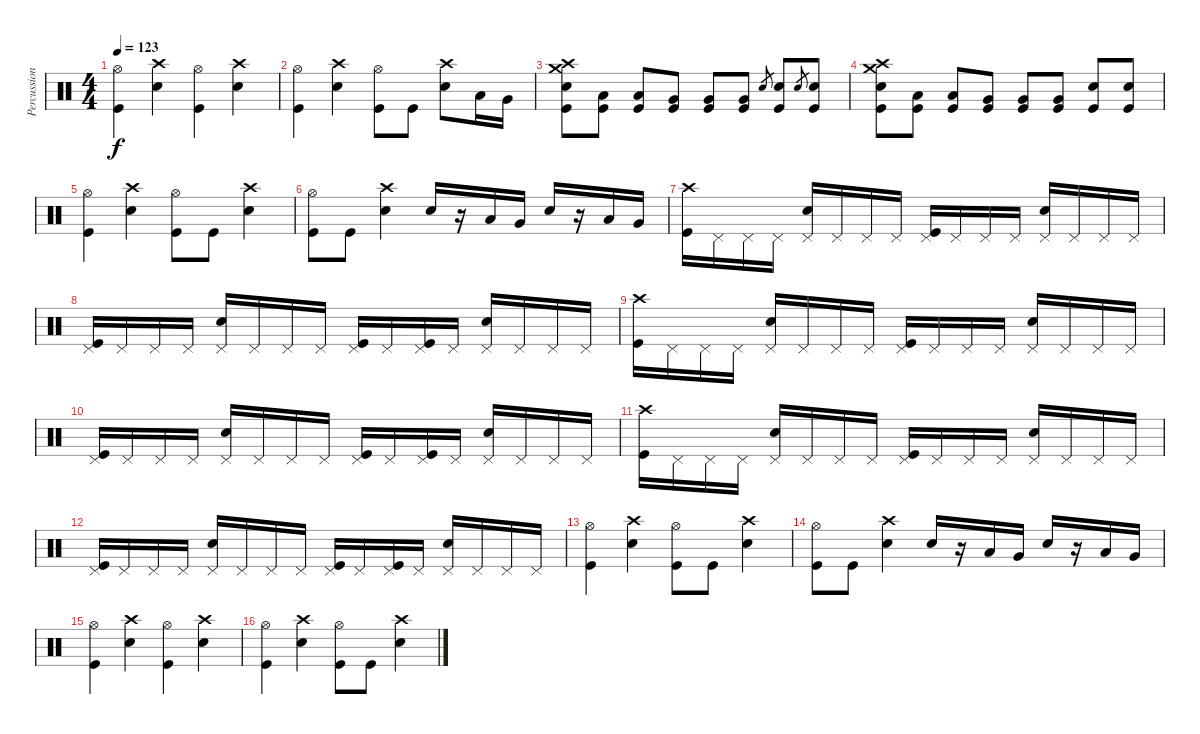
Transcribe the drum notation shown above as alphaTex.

\track ("Percussion" "Percussion") {instrument percussion}
\staff {score}
\articulation defaults
\ts (4 4)
\tempo 123
\clef neutral
\ks c
("Hi-Hat (open)" "Kick (hit)").4{dy f} ("Crash high (hit)" "Snare (hit) 2").4 ("Hi-Hat (open)" "Kick (hit)").4 ("Crash high (hit)" "Snare (hit) 2").4 |
("Hi-Hat (open)" "Kick (hit)").4 ("Crash high (hit)" "Snare (hit) 2").4 ("Hi-Hat (open)" "Kick (hit)").8 "Kick (hit)".8 ("Crash high (hit)" "Snare (hit) 2").8 "Low Tom (hit)".16 "Very Low Tom (hit)".16 |
("Crash high (hit)" "Crash medium (hit)" "Snare (hit) 2" "Kick (hit)").8 ("Low Tom (hit)" "Kick (hit)").8 ("Low Tom (hit)" "Kick (hit)").8 ("Very Low Tom (hit)" "Kick (hit)").8 ("Very Low Tom (hit)" "Kick (hit)").8 ("Very Low Tom (hit)" "Kick (hit)").8 "Snare (hit) 2".8{gr} ("Snare (hit) 2" "Kick (hit)").8 "Snare (hit) 2".8{gr} ("Snare (hit) 2" "Kick (hit)").8 |
("Crash high (hit)" "Crash medium (hit)" "Snare (hit) 2" "Kick (hit)").8 ("Low Tom (hit)" "Kick (hit)").8 ("Low Tom (hit)" "Kick (hit)").8 ("Very Low Tom (hit)" "Kick (hit)").8 ("Very Low Tom (hit)" "Kick (hit)").8 ("Very Low Tom (hit)" "Kick (hit)").8 ("Snare (hit) 2" "Kick (hit)").8 ("Snare (hit) 2" "Kick (hit)").8 |
("Hi-Hat (open)" "Kick (hit)").4 ("Crash high (hit)" "Snare (hit) 2").4 ("Hi-Hat (open)" "Kick (hit)").8 "Kick (hit)".8 ("Crash high (hit)" "Snare (hit) 2").4 |
("Hi-Hat (open)" "Kick (hit)").8 "Kick (hit)".8 ("Crash high (hit)" "Snare (hit) 2").4 "Snare (hit) 2".16 r.16 "Low Tom (hit)".16 "Very Low Tom (hit)".16 "Snare (hit) 2".16 r.16 "Low Tom (hit)".16 "Very Low Tom (hit)".16 |
("Crash high (hit)" "Kick (hit)").16 "Pedal Hi-Hat (hit)".16 "Pedal Hi-Hat (hit)".16 "Pedal Hi-Hat (hit)".16 ("Pedal Hi-Hat (hit)" "Snare (hit) 2").16 "Pedal Hi-Hat (hit)".16 "Pedal Hi-Hat (hit)".16 "Pedal Hi-Hat (hit)".16 ("Pedal Hi-Hat (hit)" "Kick (hit)").16 "Pedal Hi-Hat (hit)".16 "Pedal Hi-Hat (hit)".16 "Pedal Hi-Hat (hit)".16 ("Pedal Hi-Hat (hit)" "Snare (hit) 2").16 "Pedal Hi-Hat (hit)".16 "Pedal Hi-Hat (hit)".16 "Pedal Hi-Hat (hit)".16 |
("Pedal Hi-Hat (hit)" "Kick (hit)").16 "Pedal Hi-Hat (hit)".16 "Pedal Hi-Hat (hit)".16 "Pedal Hi-Hat (hit)".16 ("Pedal Hi-Hat (hit)" "Snare (hit) 2").16 "Pedal Hi-Hat (hit)".16 "Pedal Hi-Hat (hit)".16 "Pedal Hi-Hat (hit)".16 ("Pedal Hi-Hat (hit)" "Kick (hit)").16 "Pedal Hi-Hat (hit)".16 ("Pedal Hi-Hat (hit)" "Kick (hit)").16 "Pedal Hi-Hat (hit)".16 ("Pedal Hi-Hat (hit)" "Snare (hit) 2").16 "Pedal Hi-Hat (hit)".16 "Pedal Hi-Hat (hit)".16 "Pedal Hi-Hat (hit)".16 |
("Crash high (hit)" "Kick (hit)").16 "Pedal Hi-Hat (hit)".16 "Pedal Hi-Hat (hit)".16 "Pedal Hi-Hat (hit)".16 ("Pedal Hi-Hat (hit)" "Snare (hit) 2").16 "Pedal Hi-Hat (hit)".16 "Pedal Hi-Hat (hit)".16 "Pedal Hi-Hat (hit)".16 ("Pedal Hi-Hat (hit)" "Kick (hit)").16 "Pedal Hi-Hat (hit)".16 "Pedal Hi-Hat (hit)".16 "Pedal Hi-Hat (hit)".16 ("Pedal Hi-Hat (hit)" "Snare (hit) 2").16 "Pedal Hi-Hat (hit)".16 "Pedal Hi-Hat (hit)".16 "Pedal Hi-Hat (hit)".16 |
("Pedal Hi-Hat (hit)" "Kick (hit)").16 "Pedal Hi-Hat (hit)".16 "Pedal Hi-Hat (hit)".16 "Pedal Hi-Hat (hit)".16 ("Pedal Hi-Hat (hit)" "Snare (hit) 2").16 "Pedal Hi-Hat (hit)".16 "Pedal Hi-Hat (hit)".16 "Pedal Hi-Hat (hit)".16 ("Pedal Hi-Hat (hit)" "Kick (hit)").16 "Pedal Hi-Hat (hit)".16 ("Pedal Hi-Hat (hit)" "Kick (hit)").16 "Pedal Hi-Hat (hit)".16 ("Pedal Hi-Hat (hit)" "Snare (hit) 2").16 "Pedal Hi-Hat (hit)".16 "Pedal Hi-Hat (hit)".16 "Pedal Hi-Hat (hit)".16 |
("Crash high (hit)" "Kick (hit)").16 "Pedal Hi-Hat (hit)".16 "Pedal Hi-Hat (hit)".16 "Pedal Hi-Hat (hit)".16 ("Pedal Hi-Hat (hit)" "Snare (hit) 2").16 "Pedal Hi-Hat (hit)".16 "Pedal Hi-Hat (hit)".16 "Pedal Hi-Hat (hit)".16 ("Pedal Hi-Hat (hit)" "Kick (hit)").16 "Pedal Hi-Hat (hit)".16 "Pedal Hi-Hat (hit)".16 "Pedal Hi-Hat (hit)".16 ("Pedal Hi-Hat (hit)" "Snare (hit) 2").16 "Pedal Hi-Hat (hit)".16 "Pedal Hi-Hat (hit)".16 "Pedal Hi-Hat (hit)".16 |
("Pedal Hi-Hat (hit)" "Kick (hit)").16 "Pedal Hi-Hat (hit)".16 "Pedal Hi-Hat (hit)".16 "Pedal Hi-Hat (hit)".16 ("Pedal Hi-Hat (hit)" "Snare (hit) 2").16 "Pedal Hi-Hat (hit)".16 "Pedal Hi-Hat (hit)".16 "Pedal Hi-Hat (hit)".16 ("Pedal Hi-Hat (hit)" "Kick (hit)").16 "Pedal Hi-Hat (hit)".16 ("Pedal Hi-Hat (hit)" "Kick (hit)").16 "Pedal Hi-Hat (hit)".16 ("Pedal Hi-Hat (hit)" "Snare (hit) 2").16 "Pedal Hi-Hat (hit)".16 "Pedal Hi-Hat (hit)".16 "Pedal Hi-Hat (hit)".16 |
("Hi-Hat (open)" "Kick (hit)").4 ("Crash high (hit)" "Snare (hit) 2").4 ("Hi-Hat (open)" "Kick (hit)").8 "Kick (hit)".8 ("Crash high (hit)" "Snare (hit) 2").4 |
("Hi-Hat (open)" "Kick (hit)").8 "Kick (hit)".8 ("Crash high (hit)" "Snare (hit) 2").4 "Snare (hit) 2".16 r.16 "Low Tom (hit)".16 "Very Low Tom (hit)".16 "Snare (hit) 2".16 r.16 "Low Tom (hit)".16 "Very Low Tom (hit)".16 |
("Hi-Hat (open)" "Kick (hit)").4 ("Crash high (hit)" "Snare (hit) 2").4 ("Hi-Hat (open)" "Kick (hit)").4 ("Crash high (hit)" "Snare (hit) 2").4 |
("Hi-Hat (open)" "Kick (hit)").4 ("Crash high (hit)" "Snare (hit) 2").4 ("Hi-Hat (open)" "Kick (hit)").8 "Kick (hit)".8 ("Crash high (hit)" "Snare (hit) 2").4
